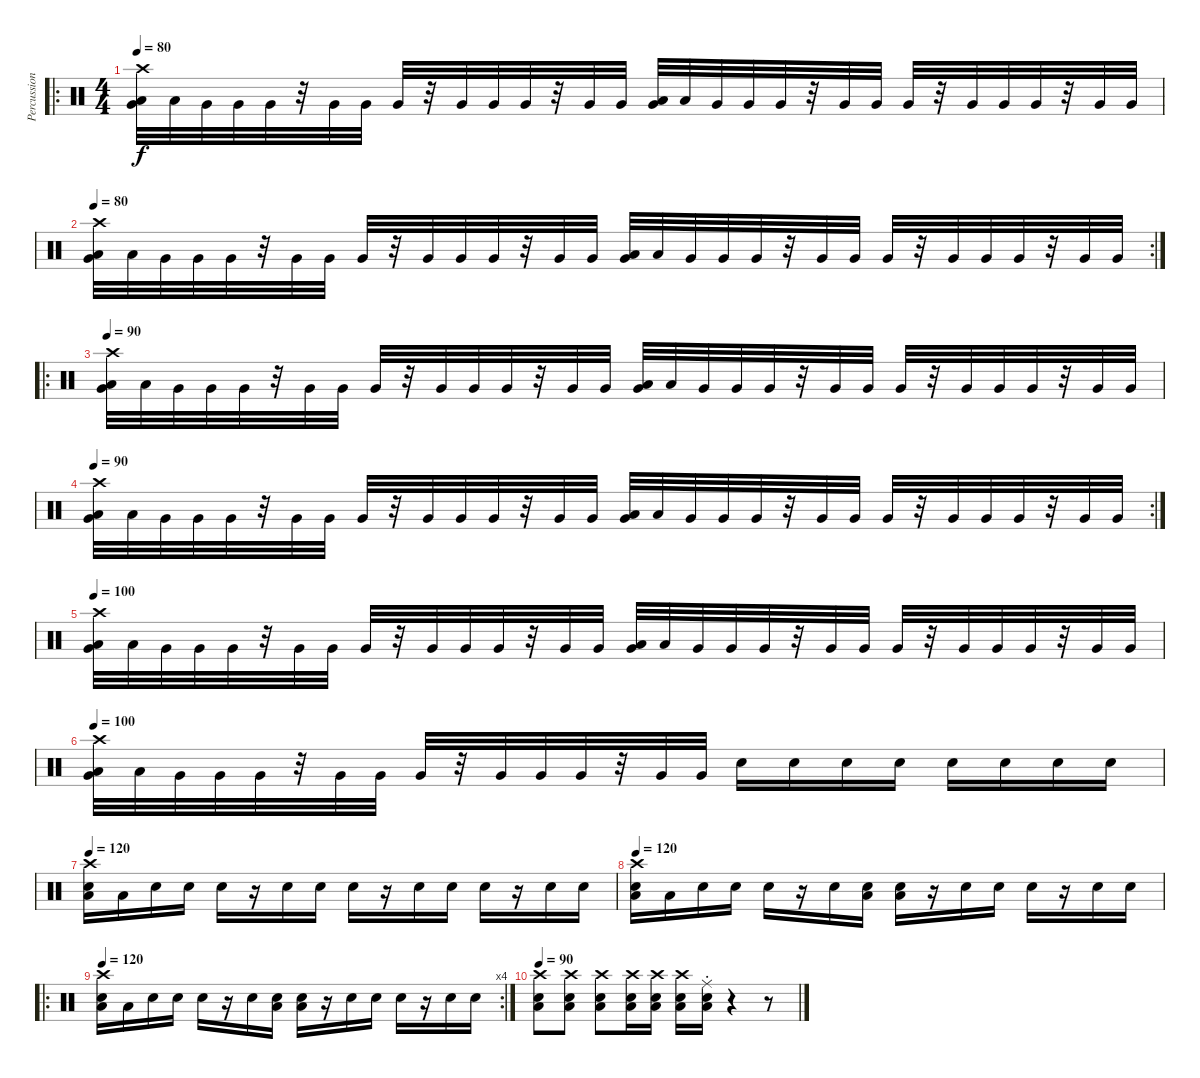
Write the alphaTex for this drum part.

\track ("Percussions" "Percussion") {instrument percussion}
\staff {score}
\articulation defaults
\ro
\ts (4 4)
\tempo 80
\clef neutral
\ks c
("Low Floor Tom (hit)" "Very Low Tom (hit)" "Crash high (hit)").32{dy f} "Low Floor Tom (hit)".32 "Very Low Tom (hit)".32 "Very Low Tom (hit)".32 "Very Low Tom (hit)".32 r.32 "Very Low Tom (hit)".32 "Very Low Tom (hit)".32 "Very Low Tom (hit)".32 r.32 "Very Low Tom (hit)".32 "Very Low Tom (hit)".32 "Very Low Tom (hit)".32 r.32 "Very Low Tom (hit)".32 "Very Low Tom (hit)".32 ("Low Floor Tom (hit)" "Very Low Tom (hit)").32 "Low Floor Tom (hit)".32 "Very Low Tom (hit)".32 "Very Low Tom (hit)".32 "Very Low Tom (hit)".32 r.32 "Very Low Tom (hit)".32 "Very Low Tom (hit)".32 "Very Low Tom (hit)".32 r.32 "Very Low Tom (hit)".32 "Very Low Tom (hit)".32 "Very Low Tom (hit)".32 r.32 "Very Low Tom (hit)".32 "Very Low Tom (hit)".32 |
\rc 2
\tempo 80
("Low Floor Tom (hit)" "Very Low Tom (hit)" "Crash high (hit)").32 "Low Floor Tom (hit)".32 "Very Low Tom (hit)".32 "Very Low Tom (hit)".32 "Very Low Tom (hit)".32 r.32 "Very Low Tom (hit)".32 "Very Low Tom (hit)".32 "Very Low Tom (hit)".32 r.32 "Very Low Tom (hit)".32 "Very Low Tom (hit)".32 "Very Low Tom (hit)".32 r.32 "Very Low Tom (hit)".32 "Very Low Tom (hit)".32 ("Low Floor Tom (hit)" "Very Low Tom (hit)").32 "Low Floor Tom (hit)".32 "Very Low Tom (hit)".32 "Very Low Tom (hit)".32 "Very Low Tom (hit)".32 r.32 "Very Low Tom (hit)".32 "Very Low Tom (hit)".32 "Very Low Tom (hit)".32 r.32 "Very Low Tom (hit)".32 "Very Low Tom (hit)".32 "Very Low Tom (hit)".32 r.32 "Very Low Tom (hit)".32 "Very Low Tom (hit)".32 |
\ro
\tempo 90
("Low Floor Tom (hit)" "Very Low Tom (hit)" "Crash high (hit)").32 "Low Floor Tom (hit)".32 "Very Low Tom (hit)".32 "Very Low Tom (hit)".32 "Very Low Tom (hit)".32 r.32 "Very Low Tom (hit)".32 "Very Low Tom (hit)".32 "Very Low Tom (hit)".32 r.32 "Very Low Tom (hit)".32 "Very Low Tom (hit)".32 "Very Low Tom (hit)".32 r.32 "Very Low Tom (hit)".32 "Very Low Tom (hit)".32 ("Low Floor Tom (hit)" "Very Low Tom (hit)").32 "Low Floor Tom (hit)".32 "Very Low Tom (hit)".32 "Very Low Tom (hit)".32 "Very Low Tom (hit)".32 r.32 "Very Low Tom (hit)".32 "Very Low Tom (hit)".32 "Very Low Tom (hit)".32 r.32 "Very Low Tom (hit)".32 "Very Low Tom (hit)".32 "Very Low Tom (hit)".32 r.32 "Very Low Tom (hit)".32 "Very Low Tom (hit)".32 |
\rc 2
\tempo 90
("Low Floor Tom (hit)" "Very Low Tom (hit)" "Crash high (hit)").32 "Low Floor Tom (hit)".32 "Very Low Tom (hit)".32 "Very Low Tom (hit)".32 "Very Low Tom (hit)".32 r.32 "Very Low Tom (hit)".32 "Very Low Tom (hit)".32 "Very Low Tom (hit)".32 r.32 "Very Low Tom (hit)".32 "Very Low Tom (hit)".32 "Very Low Tom (hit)".32 r.32 "Very Low Tom (hit)".32 "Very Low Tom (hit)".32 ("Low Floor Tom (hit)" "Very Low Tom (hit)").32 "Low Floor Tom (hit)".32 "Very Low Tom (hit)".32 "Very Low Tom (hit)".32 "Very Low Tom (hit)".32 r.32 "Very Low Tom (hit)".32 "Very Low Tom (hit)".32 "Very Low Tom (hit)".32 r.32 "Very Low Tom (hit)".32 "Very Low Tom (hit)".32 "Very Low Tom (hit)".32 r.32 "Very Low Tom (hit)".32 "Very Low Tom (hit)".32 |
\tempo 100
("Low Floor Tom (hit)" "Very Low Tom (hit)" "Crash high (hit)").32 "Low Floor Tom (hit)".32 "Very Low Tom (hit)".32 "Very Low Tom (hit)".32 "Very Low Tom (hit)".32 r.32 "Very Low Tom (hit)".32 "Very Low Tom (hit)".32 "Very Low Tom (hit)".32 r.32 "Very Low Tom (hit)".32 "Very Low Tom (hit)".32 "Very Low Tom (hit)".32 r.32 "Very Low Tom (hit)".32 "Very Low Tom (hit)".32 ("Low Floor Tom (hit)" "Very Low Tom (hit)").32 "Low Floor Tom (hit)".32 "Very Low Tom (hit)".32 "Very Low Tom (hit)".32 "Very Low Tom (hit)".32 r.32 "Very Low Tom (hit)".32 "Very Low Tom (hit)".32 "Very Low Tom (hit)".32 r.32 "Very Low Tom (hit)".32 "Very Low Tom (hit)".32 "Very Low Tom (hit)".32 r.32 "Very Low Tom (hit)".32 "Very Low Tom (hit)".32 |
\tempo 100
("Low Floor Tom (hit)" "Very Low Tom (hit)" "Crash high (hit)").32 "Low Floor Tom (hit)".32 "Very Low Tom (hit)".32 "Very Low Tom (hit)".32 "Very Low Tom (hit)".32 r.32 "Very Low Tom (hit)".32 "Very Low Tom (hit)".32 "Very Low Tom (hit)".32 r.32 "Very Low Tom (hit)".32 "Very Low Tom (hit)".32 "Very Low Tom (hit)".32 r.32 "Very Low Tom (hit)".32 "Very Low Tom (hit)".32 "Snare (hit) 2".16 "Snare (hit) 2".16 "Snare (hit) 2".16 "Snare (hit) 2".16 "Snare (hit) 2".16 "Snare (hit) 2".16 "Snare (hit) 2".16 "Snare (hit) 2".16 |
\tempo 120
("Low Floor Tom (hit)" "Snare (hit) 2" "Crash high (hit)").16 "Low Floor Tom (hit)".16 "Snare (hit) 2".16 "Snare (hit) 2".16 "Snare (hit) 2".16 r.16 "Snare (hit) 2".16 "Snare (hit) 2".16 "Snare (hit) 2".16 r.16 "Snare (hit) 2".16 "Snare (hit) 2".16 "Snare (hit) 2".16 r.16 "Snare (hit) 2".16 "Snare (hit) 2".16 |
\tempo 120
("Low Floor Tom (hit)" "Snare (hit) 2" "Crash high (hit)").16 "Low Floor Tom (hit)".16 "Snare (hit) 2".16 "Snare (hit) 2".16 "Snare (hit) 2".16 r.16 "Snare (hit) 2".16 ("Low Floor Tom (hit)" "Snare (hit) 2").16 ("Low Floor Tom (hit)" "Snare (hit) 2").16 r.16 "Snare (hit) 2".16 "Snare (hit) 2".16 "Snare (hit) 2".16 r.16 "Snare (hit) 2".16 "Snare (hit) 2".16 |
\ro
\rc 4
\tempo 120
("Low Floor Tom (hit)" "Snare (hit) 2" "Crash high (hit)").16 "Low Floor Tom (hit)".16 "Snare (hit) 2".16 "Snare (hit) 2".16 "Snare (hit) 2".16 r.16 "Snare (hit) 2".16 ("Low Floor Tom (hit)" "Snare (hit) 2").16 ("Low Floor Tom (hit)" "Snare (hit) 2").16 r.16 "Snare (hit) 2".16 "Snare (hit) 2".16 "Snare (hit) 2".16 r.16 "Snare (hit) 2".16 "Snare (hit) 2".16 |
\tempo 90
("Low Floor Tom (hit)" "Snare (hit) 2" "Crash high (hit)").8 ("Low Floor Tom (hit)" "Snare (hit) 2" "Crash high (hit)").8 ("Low Floor Tom (hit)" "Snare (hit) 2" "Crash high (hit)").8 ("Low Floor Tom (hit)" "Snare (hit) 2" "Crash high (hit)").16 ("Low Floor Tom (hit)" "Snare (hit) 2" "Crash high (hit)").16 ("Low Floor Tom (hit)" "Snare (hit) 2" "Crash high (hit)").16 ("Low Floor Tom (hit)" "Snare (hit) 2" "Ride (choke)").16 r.4 r.8
